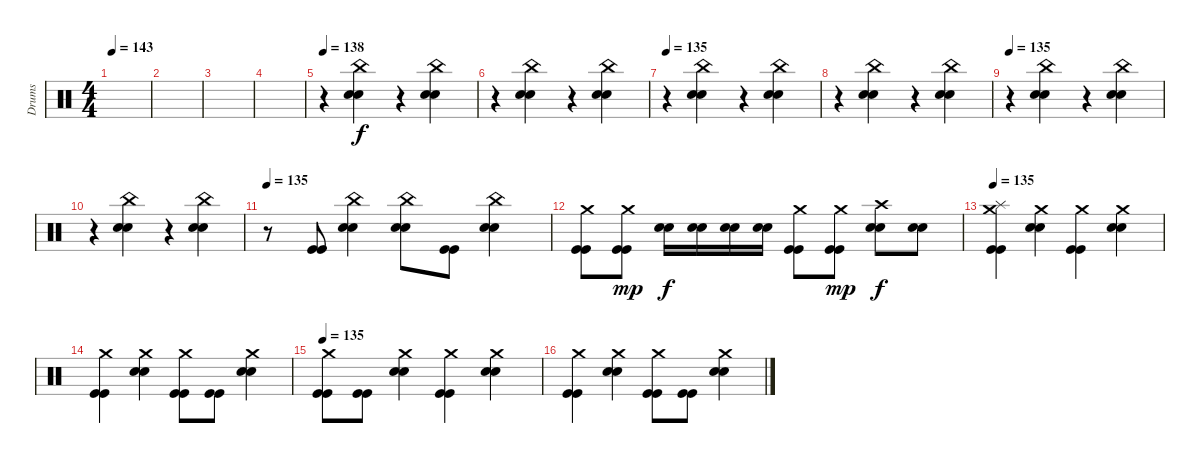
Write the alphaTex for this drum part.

\track ("Drums" "Drums") {instrument percussion}
\staff {score}
\articulation defaults
\ts (4 4)
\tempo 143
\clef neutral
\ks c
|
|
|
|
\tempo 138
r.4 ("China (hit)" "Electric Snare (hit)" "Electric Snare (hit)").4 r.4 ("China (hit)" "Electric Snare (hit)" "Electric Snare (hit)").4 |
r.4 ("China (hit)" "Electric Snare (hit)" "Electric Snare (hit)").4 r.4 ("China (hit)" "Electric Snare (hit)" "Electric Snare (hit)").4 |
\tempo 135
r.4 ("China (hit)" "Electric Snare (hit)" "Electric Snare (hit)").4 r.4 ("China (hit)" "Electric Snare (hit)" "Electric Snare (hit)").4 |
r.4 ("China (hit)" "Electric Snare (hit)" "Electric Snare (hit)").4 r.4 ("China (hit)" "Electric Snare (hit)" "Electric Snare (hit)").4 |
\tempo 135
r.4 ("China (hit)" "Electric Snare (hit)" "Electric Snare (hit)").4 r.4 ("China (hit)" "Electric Snare (hit)" "Electric Snare (hit)").4 |
r.4 ("China (hit)" "Electric Snare (hit)" "Electric Snare (hit)").4 r.4 ("China (hit)" "Electric Snare (hit)" "Electric Snare (hit)").4 |
\tempo 135
r.8 ("Kick (hit)" "Kick (hit)").8 ("China (hit)" "Electric Snare (hit)" "Electric Snare (hit)").4 ("China (hit)" "Electric Snare (hit)" "Electric Snare (hit)").8 ("Kick (hit)" "Kick (hit)").8 ("China (hit)" "Electric Snare (hit)" "Electric Snare (hit)").4 |
("Crash medium (hit)" "Kick (hit)" "Kick (hit)").8 ("Crash medium (hit)" "Kick (hit)" "Kick (hit)").8{dy mp} ("Electric Snare (hit)" "Electric Snare (hit)").16{dy f} ("Electric Snare (hit)" "Electric Snare (hit)").16 ("Electric Snare (hit)" "Electric Snare (hit)").16 ("Electric Snare (hit)" "Electric Snare (hit)").16 ("Crash medium (hit)" "Kick (hit)" "Kick (hit)").8 ("Crash medium (hit)" "Kick (hit)" "Kick (hit)").8{dy mp} ("Crash high (hit)" "Electric Snare (hit)" "Electric Snare (hit)").8{dy f} ("Electric Snare (hit)" "Electric Snare (hit)").8 |
\tempo 135
("Splash (hit)" "Crash medium (hit)" "Kick (hit)" "Kick (hit)").4 ("Crash medium (hit)" "Electric Snare (hit)" "Electric Snare (hit)").4 ("Crash medium (hit)" "Kick (hit)" "Kick (hit)").4 ("Crash medium (hit)" "Electric Snare (hit)" "Electric Snare (hit)").4 |
("Crash medium (hit)" "Kick (hit)" "Kick (hit)").4 ("Crash medium (hit)" "Electric Snare (hit)" "Electric Snare (hit)").4 ("Crash medium (hit)" "Kick (hit)" "Kick (hit)").8 ("Kick (hit)" "Kick (hit)").8 ("Crash medium (hit)" "Electric Snare (hit)" "Electric Snare (hit)").4 |
\tempo 135
("Crash medium (hit)" "Kick (hit)" "Kick (hit)").8 ("Kick (hit)" "Kick (hit)").8 ("Crash medium (hit)" "Electric Snare (hit)" "Electric Snare (hit)").4 ("Crash medium (hit)" "Kick (hit)" "Kick (hit)").4 ("Crash medium (hit)" "Electric Snare (hit)" "Electric Snare (hit)").4 |
("Crash medium (hit)" "Kick (hit)" "Kick (hit)").4 ("Crash medium (hit)" "Electric Snare (hit)" "Electric Snare (hit)").4 ("Crash medium (hit)" "Kick (hit)" "Kick (hit)").8 ("Kick (hit)" "Kick (hit)").8 ("Crash medium (hit)" "Electric Snare (hit)" "Electric Snare (hit)").4
